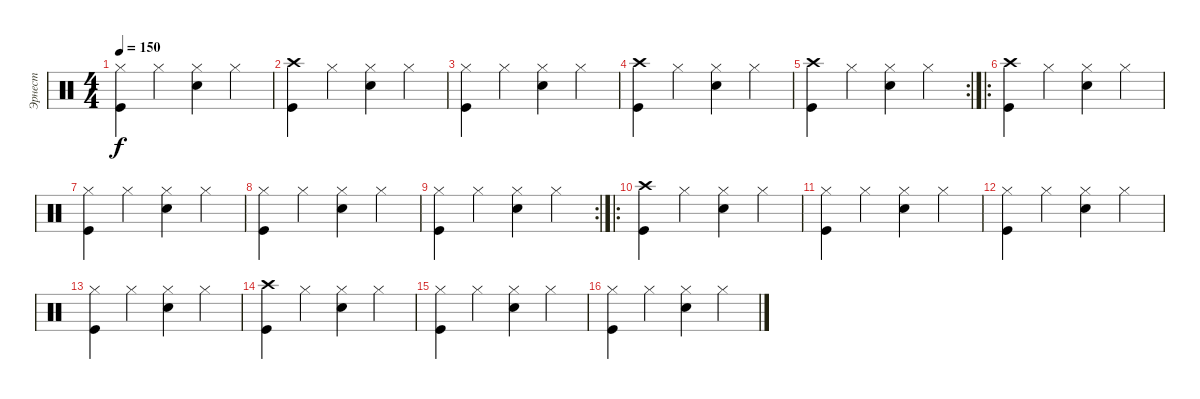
\track ("Эрнест" "Эрнест") {instrument percussion}
\staff {score}
\articulation defaults
\ts (4 4)
\tempo 150
\clef neutral
\ks c
("Hi-Hat (closed)" "Kick (hit)").4{dy f} "Hi-Hat (closed)".4 ("Hi-Hat (closed)" "Snare (hit) 2").4 "Hi-Hat (closed)".4 |
("Crash high (hit)" "Kick (hit)").4 "Hi-Hat (closed)".4 ("Hi-Hat (closed)" "Snare (hit) 2").4 "Hi-Hat (closed)".4 |
("Hi-Hat (closed)" "Kick (hit)").4 "Hi-Hat (closed)".4 ("Hi-Hat (closed)" "Snare (hit) 2").4 "Hi-Hat (closed)".4 |
("Crash high (hit)" "Kick (hit)").4 "Hi-Hat (closed)".4 ("Hi-Hat (closed)" "Snare (hit) 2").4 "Hi-Hat (closed)".4 |
\rc 2
("Crash high (hit)" "Kick (hit)").4 "Hi-Hat (closed)".4 ("Hi-Hat (closed)" "Snare (hit) 2").4 "Hi-Hat (closed)".4 |
\ro
("Crash high (hit)" "Kick (hit)").4 "Hi-Hat (closed)".4 ("Hi-Hat (closed)" "Snare (hit) 2").4 "Hi-Hat (closed)".4 |
("Hi-Hat (closed)" "Kick (hit)").4 "Hi-Hat (closed)".4 ("Hi-Hat (closed)" "Snare (hit) 2").4 "Hi-Hat (closed)".4 |
("Hi-Hat (closed)" "Kick (hit)").4 "Hi-Hat (closed)".4 ("Hi-Hat (closed)" "Snare (hit) 2").4 "Hi-Hat (closed)".4 |
\rc 2
("Hi-Hat (closed)" "Kick (hit)").4 "Hi-Hat (closed)".4 ("Hi-Hat (closed)" "Snare (hit) 2").4 "Hi-Hat (closed)".4 |
\ro
("Crash high (hit)" "Kick (hit)").4 "Hi-Hat (closed)".4 ("Hi-Hat (closed)" "Snare (hit) 2").4 "Hi-Hat (closed)".4 |
("Hi-Hat (closed)" "Kick (hit)").4 "Hi-Hat (closed)".4 ("Hi-Hat (closed)" "Snare (hit) 2").4 "Hi-Hat (closed)".4 |
("Hi-Hat (closed)" "Kick (hit)").4 "Hi-Hat (closed)".4 ("Hi-Hat (closed)" "Snare (hit) 2").4 "Hi-Hat (closed)".4 |
("Hi-Hat (closed)" "Kick (hit)").4 "Hi-Hat (closed)".4 ("Hi-Hat (closed)" "Snare (hit) 2").4 "Hi-Hat (closed)".4 |
("Crash high (hit)" "Kick (hit)").4 "Hi-Hat (closed)".4 ("Hi-Hat (closed)" "Snare (hit) 2").4 "Hi-Hat (closed)".4 |
("Hi-Hat (closed)" "Kick (hit)").4 "Hi-Hat (closed)".4 ("Hi-Hat (closed)" "Snare (hit) 2").4 "Hi-Hat (closed)".4 |
("Hi-Hat (closed)" "Kick (hit)").4 "Hi-Hat (closed)".4 ("Hi-Hat (closed)" "Snare (hit) 2").4 "Hi-Hat (closed)".4
